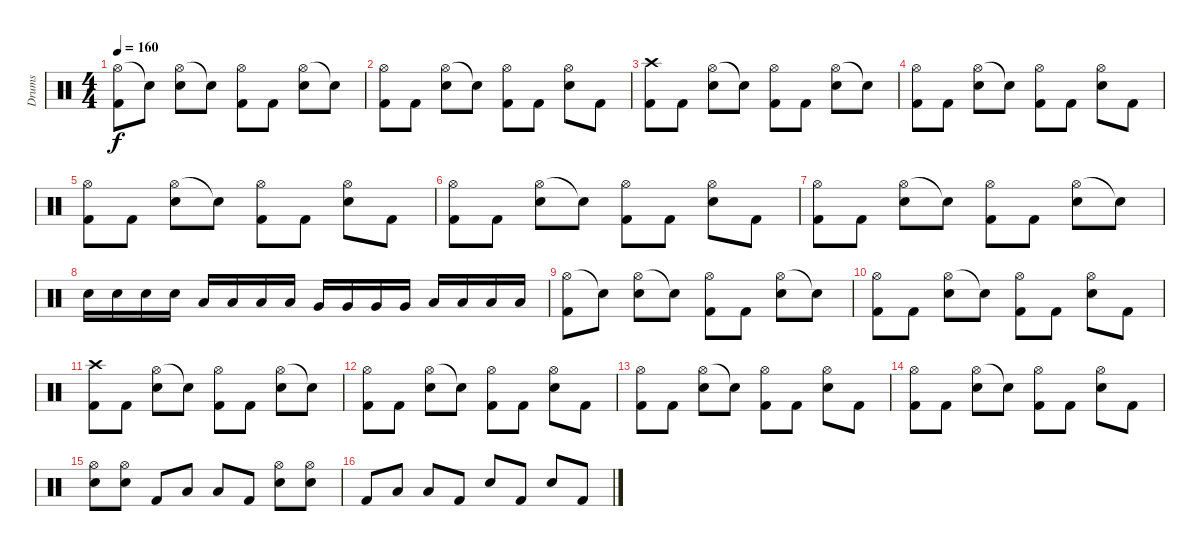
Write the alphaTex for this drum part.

\track ("Drums" "Drums") {instrument percussion}
\staff {score}
\articulation defaults
\ts (4 4)
\tempo 160
\clef neutral
\ks c
("Hi-Hat (open)" "Kick (hit) 2").8{dy f} "Snare (hit)"{t}.8 ("Hi-Hat (open)" "Electric Snare (hit)").8 "Snare (hit)"{t}.8 ("Hi-Hat (open)" "Kick (hit) 2").8 "Kick (hit) 2".8 ("Hi-Hat (open)" "Electric Snare (hit)").8 "Snare (hit)"{t}.8 |
("Hi-Hat (open)" "Kick (hit) 2").8 "Kick (hit) 2".8 ("Hi-Hat (open)" "Electric Snare (hit)").8 "Snare (hit)"{t}.8 ("Hi-Hat (open)" "Kick (hit) 2").8 "Kick (hit) 2".8 ("Hi-Hat (open)" "Electric Snare (hit)").8 "Kick (hit) 2".8 |
("Crash high (hit)" "Kick (hit) 2").8 "Kick (hit) 2".8 ("Hi-Hat (open)" "Electric Snare (hit)").8 "Snare (hit)"{t}.8 ("Hi-Hat (open)" "Kick (hit) 2").8 "Kick (hit) 2".8 ("Hi-Hat (open)" "Electric Snare (hit)").8 "Snare (hit)"{t}.8 |
("Hi-Hat (open)" "Kick (hit) 2").8 "Kick (hit) 2".8 ("Hi-Hat (open)" "Electric Snare (hit)").8 "Snare (hit)"{t}.8 ("Hi-Hat (open)" "Kick (hit) 2").8 "Kick (hit) 2".8 ("Hi-Hat (open)" "Electric Snare (hit)").8 "Kick (hit) 2".8 |
("Hi-Hat (open)" "Kick (hit) 2").8 "Kick (hit) 2".8 ("Hi-Hat (open)" "Electric Snare (hit)").8 "Snare (hit)"{t}.8 ("Hi-Hat (open)" "Kick (hit) 2").8 "Kick (hit) 2".8 ("Hi-Hat (open)" "Electric Snare (hit)").8 "Kick (hit) 2".8 |
("Hi-Hat (open)" "Kick (hit) 2").8 "Kick (hit) 2".8 ("Hi-Hat (open)" "Electric Snare (hit)").8 "Snare (hit)"{t}.8 ("Hi-Hat (open)" "Kick (hit) 2").8 "Kick (hit) 2".8 ("Hi-Hat (open)" "Electric Snare (hit)").8 "Kick (hit) 2".8 |
("Hi-Hat (open)" "Kick (hit) 2").8 "Kick (hit) 2".8 ("Hi-Hat (open)" "Electric Snare (hit)").8 "Snare (hit)"{t}.8 ("Hi-Hat (open)" "Kick (hit) 2").8 "Kick (hit) 2".8 ("Hi-Hat (open)" "Electric Snare (hit)").8 "Snare (hit)"{t}.8 |
"Electric Snare (hit)".16 "Electric Snare (hit)".16 "Electric Snare (hit)".16 "Electric Snare (hit)".16 "Low Tom (hit)".16 "Low Tom (hit)".16 "Low Tom (hit)".16 "Low Tom (hit)".16 "Very Low Tom (hit)".16 "Very Low Tom (hit)".16 "Very Low Tom (hit)".16 "Very Low Tom (hit)".16 "Low Floor Tom (hit)".16 "Low Floor Tom (hit)".16 "Low Floor Tom (hit)".16 "Low Floor Tom (hit)".16 |
("Hi-Hat (open)" "Kick (hit) 2").8 "Snare (hit)"{t}.8 ("Hi-Hat (open)" "Electric Snare (hit)").8 "Snare (hit)"{t}.8 ("Hi-Hat (open)" "Kick (hit) 2").8 "Kick (hit) 2".8 ("Hi-Hat (open)" "Electric Snare (hit)").8 "Snare (hit)"{t}.8 |
("Hi-Hat (open)" "Kick (hit) 2").8 "Kick (hit) 2".8 ("Hi-Hat (open)" "Electric Snare (hit)").8 "Snare (hit)"{t}.8 ("Hi-Hat (open)" "Kick (hit) 2").8 "Kick (hit) 2".8 ("Hi-Hat (open)" "Electric Snare (hit)").8 "Kick (hit) 2".8 |
("Crash high (hit)" "Kick (hit) 2").8 "Kick (hit) 2".8 ("Hi-Hat (open)" "Electric Snare (hit)").8 "Snare (hit)"{t}.8 ("Hi-Hat (open)" "Kick (hit) 2").8 "Kick (hit) 2".8 ("Hi-Hat (open)" "Electric Snare (hit)").8 "Snare (hit)"{t}.8 |
("Hi-Hat (open)" "Kick (hit) 2").8 "Kick (hit) 2".8 ("Hi-Hat (open)" "Electric Snare (hit)").8 "Snare (hit)"{t}.8 ("Hi-Hat (open)" "Kick (hit) 2").8 "Kick (hit) 2".8 ("Hi-Hat (open)" "Electric Snare (hit)").8 "Kick (hit) 2".8 |
("Hi-Hat (open)" "Kick (hit) 2").8 "Kick (hit) 2".8 ("Hi-Hat (open)" "Electric Snare (hit)").8 "Snare (hit)"{t}.8 ("Hi-Hat (open)" "Kick (hit) 2").8 "Kick (hit) 2".8 ("Hi-Hat (open)" "Electric Snare (hit)").8 "Kick (hit) 2".8 |
("Hi-Hat (open)" "Kick (hit) 2").8 "Kick (hit) 2".8 ("Hi-Hat (open)" "Electric Snare (hit)").8 "Snare (hit)"{t}.8 ("Hi-Hat (open)" "Kick (hit) 2").8 "Kick (hit) 2".8 ("Hi-Hat (open)" "Electric Snare (hit)").8 "Kick (hit) 2".8 |
("Hi-Hat (open)" "Electric Snare (hit)").8 ("Hi-Hat (open)" "Electric Snare (hit)").8 "Kick (hit) 2".8 "Low Tom (hit)".8 "Low Tom (hit)".8 "Kick (hit) 2".8 ("Hi-Hat (open)" "Electric Snare (hit)").8 ("Hi-Hat (open)" "Electric Snare (hit)").8 |
"Kick (hit) 2".8 "Low Tom (hit)".8 "Low Tom (hit)".8 "Kick (hit) 2".8 "Electric Snare (hit)".8 "Kick (hit) 2".8 "Electric Snare (hit)".8 "Kick (hit) 2".8
